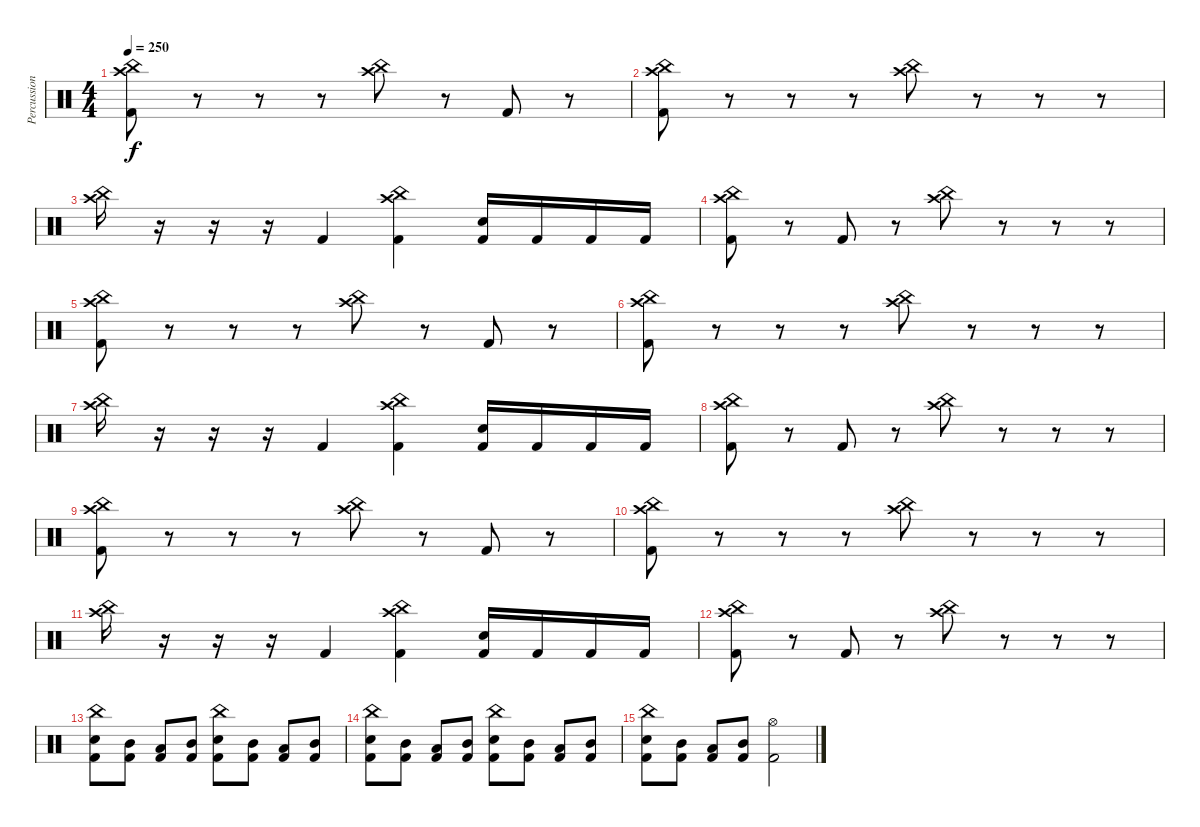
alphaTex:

\track ("Percussion" "Percussion") {instrument percussion}
\staff {score}
\articulation defaults
\ts (4 4)
\tempo 250
\clef neutral
\ks c
("China (hit)" "Crash high (hit)" "Kick (hit) 2").8{dy f} r.8 r.8 r.8 ("China (hit)" "Crash high (hit)").8 r.8 "Kick (hit) 2".8 r.8 |
("China (hit)" "Crash high (hit)" "Kick (hit) 2").8 r.8 r.8 r.8 ("China (hit)" "Crash high (hit)").8 r.8 r.8 r.8 |
("China (hit)" "Crash high (hit)").16 r.16 r.16 r.16 "Kick (hit) 2".4 ("China (hit)" "Crash high (hit)" "Kick (hit) 2").4 ("Electric Snare (hit)" "Kick (hit) 2").16 "Kick (hit) 2".16 "Kick (hit) 2".16 "Kick (hit) 2".16 |
("China (hit)" "Crash high (hit)" "Kick (hit) 2").8 r.8 "Kick (hit) 2".8 r.8 ("China (hit)" "Crash high (hit)").8 r.8 r.8 r.8 |
("China (hit)" "Crash high (hit)" "Kick (hit) 2").8 r.8 r.8 r.8 ("China (hit)" "Crash high (hit)").8 r.8 "Kick (hit) 2".8 r.8 |
("China (hit)" "Crash high (hit)" "Kick (hit) 2").8 r.8 r.8 r.8 ("China (hit)" "Crash high (hit)").8 r.8 r.8 r.8 |
("China (hit)" "Crash high (hit)").16 r.16 r.16 r.16 "Kick (hit) 2".4 ("China (hit)" "Crash high (hit)" "Kick (hit) 2").4 ("Electric Snare (hit)" "Kick (hit) 2").16 "Kick (hit) 2".16 "Kick (hit) 2".16 "Kick (hit) 2".16 |
("China (hit)" "Crash high (hit)" "Kick (hit) 2").8 r.8 "Kick (hit) 2".8 r.8 ("China (hit)" "Crash high (hit)").8 r.8 r.8 r.8 |
("China (hit)" "Crash high (hit)" "Kick (hit) 2").8 r.8 r.8 r.8 ("China (hit)" "Crash high (hit)").8 r.8 "Kick (hit) 2".8 r.8 |
("China (hit)" "Crash high (hit)" "Kick (hit) 2").8 r.8 r.8 r.8 ("China (hit)" "Crash high (hit)").8 r.8 r.8 r.8 |
("China (hit)" "Crash high (hit)").16 r.16 r.16 r.16 "Kick (hit) 2".4 ("China (hit)" "Crash high (hit)" "Kick (hit) 2").4 ("Electric Snare (hit)" "Kick (hit) 2").16 "Kick (hit) 2".16 "Kick (hit) 2".16 "Kick (hit) 2".16 |
("China (hit)" "Crash high (hit)" "Kick (hit) 2").8 r.8 "Kick (hit) 2".8 r.8 ("China (hit)" "Crash high (hit)").8 r.8 r.8 r.8 |
("China (hit)" "Electric Snare (hit)" "Kick (hit) 2").8 ("Mid Tom (hit)" "Kick (hit) 2").8 ("Low Tom (hit)" "Kick (hit) 2").8 ("Mid Tom (hit)" "Kick (hit) 2").8 ("China (hit)" "Electric Snare (hit)" "Kick (hit) 2").8 ("Mid Tom (hit)" "Kick (hit) 2").8 ("Low Tom (hit)" "Kick (hit) 2").8 ("Mid Tom (hit)" "Kick (hit) 2").8 |
("China (hit)" "Electric Snare (hit)" "Kick (hit) 2").8 ("Mid Tom (hit)" "Kick (hit) 2").8 ("Low Tom (hit)" "Kick (hit) 2").8 ("Mid Tom (hit)" "Kick (hit) 2").8 ("China (hit)" "Electric Snare (hit)" "Kick (hit) 2").8 ("Mid Tom (hit)" "Kick (hit) 2").8 ("Low Tom (hit)" "Kick (hit) 2").8 ("Mid Tom (hit)" "Kick (hit) 2").8 |
("China (hit)" "Electric Snare (hit)" "Kick (hit) 2").8 ("Mid Tom (hit)" "Kick (hit) 2").8 ("Low Tom (hit)" "Kick (hit) 2").8 ("Mid Tom (hit)" "Kick (hit) 2").8 ("Hi-Hat (open)" "Kick (hit) 2").2
